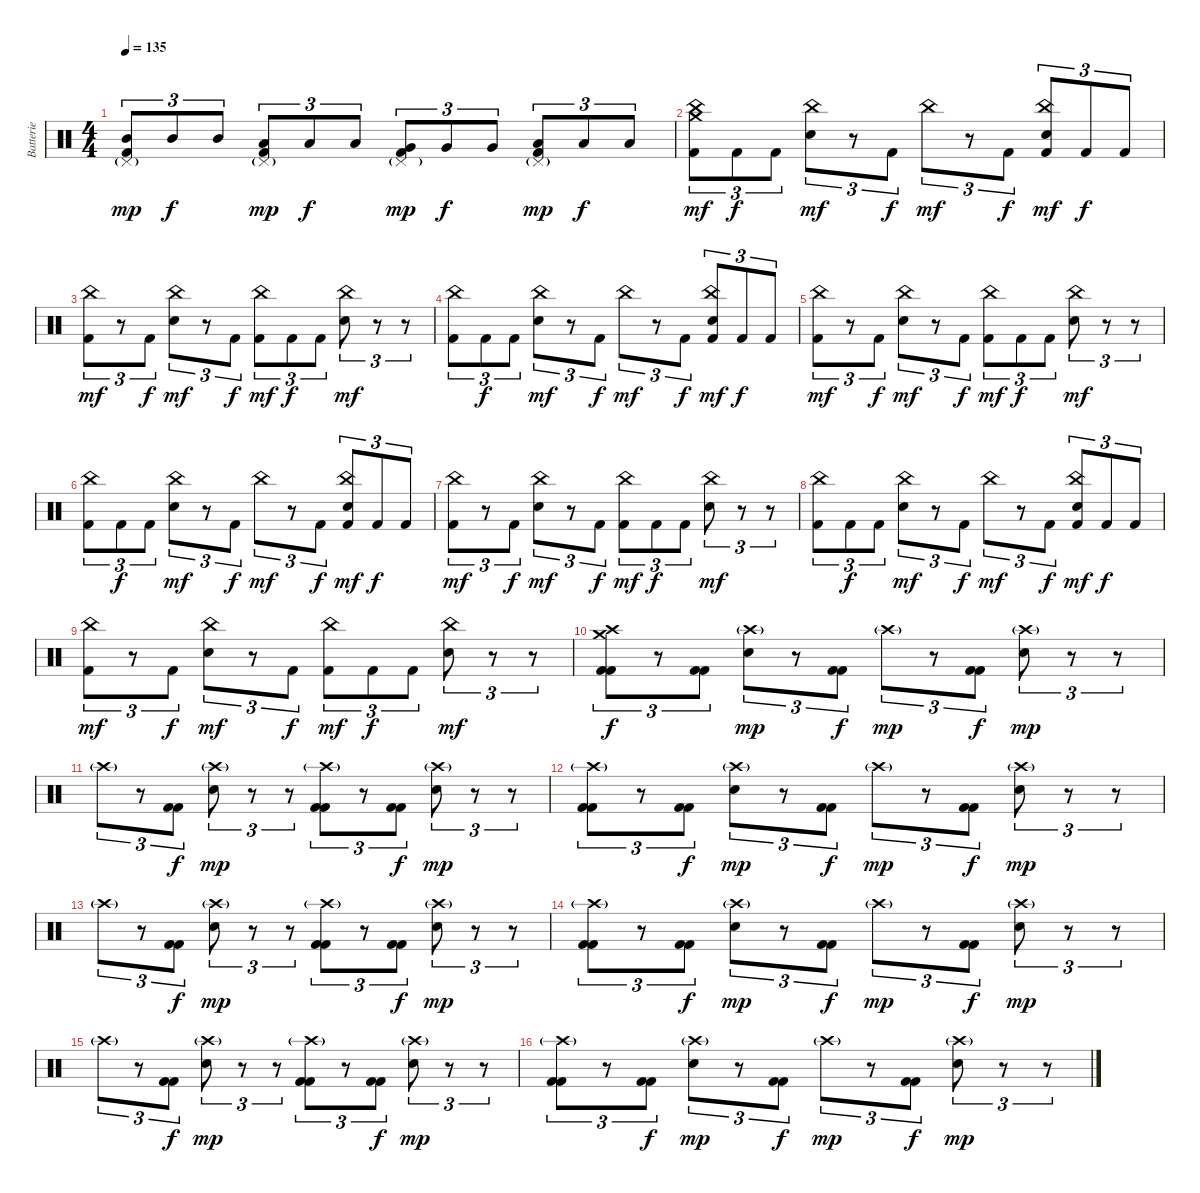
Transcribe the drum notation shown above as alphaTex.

\track ("Batterie" "Batterie") {instrument percussion}
\staff {score}
\articulation defaults
\ts (4 4)
\tempo 135
\clef neutral
\ks c
("Pedal Hi-Hat (hit)"{g} "Mid Tom (hit)" "Kick (hit) 2").8{tu (3 2) dy mp} "Mid Tom (hit)".8{tu (3 2) dy f} "Mid Tom (hit)".8{tu (3 2)} ("Pedal Hi-Hat (hit)"{g} "Low Tom (hit)" "Kick (hit) 2").8{tu (3 2) dy mp} "Low Tom (hit)".8{tu (3 2) dy f} "Low Tom (hit)".8{tu (3 2)} ("Pedal Hi-Hat (hit)"{g} "Very Low Tom (hit)" "Kick (hit) 2").8{tu (3 2) dy mp} "Very Low Tom (hit)".8{tu (3 2) dy f} "Very Low Tom (hit)".8{tu (3 2)} ("Pedal Hi-Hat (hit)"{g} "Low Floor Tom (hit)" "Kick (hit) 2").8{tu (3 2) dy mp} "Low Floor Tom (hit)".8{tu (3 2) dy f} "Low Floor Tom (hit)".8{tu (3 2)} |
("Crash medium (hit)" "China (hit)" "Kick (hit) 2").8{tu (3 2) dy mf} "Kick (hit) 2".8{tu (3 2) dy f} "Kick (hit) 2".8{tu (3 2)} ("China (hit)" "Electric Snare (hit)").8{tu (3 2) dy mf} r.8{tu (3 2)} "Kick (hit) 2".8{tu (3 2) dy f} "China (hit)".8{tu (3 2) dy mf} r.8{tu (3 2)} "Kick (hit) 2".8{tu (3 2) dy f} ("China (hit)" "Electric Snare (hit)" "Kick (hit) 2").8{tu (3 2) dy mf} "Kick (hit) 2".8{tu (3 2) dy f} "Kick (hit) 2".8{tu (3 2)} |
("China (hit)" "Kick (hit) 2").8{tu (3 2) dy mf} r.8{tu (3 2)} "Kick (hit) 2".8{tu (3 2) dy f} ("China (hit)" "Electric Snare (hit)").8{tu (3 2) dy mf} r.8{tu (3 2)} "Kick (hit) 2".8{tu (3 2) dy f} ("China (hit)" "Kick (hit) 2").8{tu (3 2) dy mf} "Kick (hit) 2".8{tu (3 2) dy f} "Kick (hit) 2".8{tu (3 2)} ("China (hit)" "Electric Snare (hit)").8{tu (3 2) dy mf} r.8{tu (3 2)} r.8{tu (3 2)} |
("China (hit)" "Kick (hit) 2").8{tu (3 2)} "Kick (hit) 2".8{tu (3 2) dy f} "Kick (hit) 2".8{tu (3 2)} ("China (hit)" "Electric Snare (hit)").8{tu (3 2) dy mf} r.8{tu (3 2)} "Kick (hit) 2".8{tu (3 2) dy f} "China (hit)".8{tu (3 2) dy mf} r.8{tu (3 2)} "Kick (hit) 2".8{tu (3 2) dy f} ("China (hit)" "Electric Snare (hit)" "Kick (hit) 2").8{tu (3 2) dy mf} "Kick (hit) 2".8{tu (3 2) dy f} "Kick (hit) 2".8{tu (3 2)} |
("China (hit)" "Kick (hit) 2").8{tu (3 2) dy mf} r.8{tu (3 2)} "Kick (hit) 2".8{tu (3 2) dy f} ("China (hit)" "Electric Snare (hit)").8{tu (3 2) dy mf} r.8{tu (3 2)} "Kick (hit) 2".8{tu (3 2) dy f} ("China (hit)" "Kick (hit) 2").8{tu (3 2) dy mf} "Kick (hit) 2".8{tu (3 2) dy f} "Kick (hit) 2".8{tu (3 2)} ("China (hit)" "Electric Snare (hit)").8{tu (3 2) dy mf} r.8{tu (3 2)} r.8{tu (3 2)} |
("China (hit)" "Kick (hit) 2").8{tu (3 2)} "Kick (hit) 2".8{tu (3 2) dy f} "Kick (hit) 2".8{tu (3 2)} ("China (hit)" "Electric Snare (hit)").8{tu (3 2) dy mf} r.8{tu (3 2)} "Kick (hit) 2".8{tu (3 2) dy f} "China (hit)".8{tu (3 2) dy mf} r.8{tu (3 2)} "Kick (hit) 2".8{tu (3 2) dy f} ("China (hit)" "Electric Snare (hit)" "Kick (hit) 2").8{tu (3 2) dy mf} "Kick (hit) 2".8{tu (3 2) dy f} "Kick (hit) 2".8{tu (3 2)} |
("China (hit)" "Kick (hit) 2").8{tu (3 2) dy mf} r.8{tu (3 2)} "Kick (hit) 2".8{tu (3 2) dy f} ("China (hit)" "Electric Snare (hit)").8{tu (3 2) dy mf} r.8{tu (3 2)} "Kick (hit) 2".8{tu (3 2) dy f} ("China (hit)" "Kick (hit) 2").8{tu (3 2) dy mf} "Kick (hit) 2".8{tu (3 2) dy f} "Kick (hit) 2".8{tu (3 2)} ("China (hit)" "Electric Snare (hit)").8{tu (3 2) dy mf} r.8{tu (3 2)} r.8{tu (3 2)} |
("China (hit)" "Kick (hit) 2").8{tu (3 2)} "Kick (hit) 2".8{tu (3 2) dy f} "Kick (hit) 2".8{tu (3 2)} ("China (hit)" "Electric Snare (hit)").8{tu (3 2) dy mf} r.8{tu (3 2)} "Kick (hit) 2".8{tu (3 2) dy f} "China (hit)".8{tu (3 2) dy mf} r.8{tu (3 2)} "Kick (hit) 2".8{tu (3 2) dy f} ("China (hit)" "Electric Snare (hit)" "Kick (hit) 2").8{tu (3 2) dy mf} "Kick (hit) 2".8{tu (3 2) dy f} "Kick (hit) 2".8{tu (3 2)} |
("China (hit)" "Kick (hit) 2").8{tu (3 2) dy mf} r.8{tu (3 2)} "Kick (hit) 2".8{tu (3 2) dy f} ("China (hit)" "Electric Snare (hit)").8{tu (3 2) dy mf} r.8{tu (3 2)} "Kick (hit) 2".8{tu (3 2) dy f} ("China (hit)" "Kick (hit) 2").8{tu (3 2) dy mf} "Kick (hit) 2".8{tu (3 2) dy f} "Kick (hit) 2".8{tu (3 2)} ("China (hit)" "Electric Snare (hit)").8{tu (3 2) dy mf} r.8{tu (3 2)} r.8{tu (3 2)} |
("Crash high (hit)" "Crash medium (hit)" "Kick (hit) 2" "Kick (hit) 2").8{tu (3 2) dy f} r.8{tu (3 2)} ("Kick (hit) 2" "Kick (hit) 2").8{tu (3 2)} ("Crash high (hit)"{g} "Electric Snare (hit)").8{tu (3 2) dy mp} r.8{tu (3 2)} ("Kick (hit) 2" "Kick (hit) 2").8{tu (3 2) dy f} "Crash high (hit)"{g}.8{tu (3 2) dy mp} r.8{tu (3 2)} ("Kick (hit) 2" "Kick (hit) 2").8{tu (3 2) dy f} ("Crash high (hit)"{g} "Electric Snare (hit)").8{tu (3 2) dy mp} r.8{tu (3 2)} r.8{tu (3 2)} |
"Crash high (hit)"{g}.8{tu (3 2)} r.8{tu (3 2)} ("Kick (hit) 2" "Kick (hit) 2").8{tu (3 2) dy f} ("Crash high (hit)"{g} "Electric Snare (hit)").8{tu (3 2) dy mp} r.8{tu (3 2)} r.8{tu (3 2)} ("Crash high (hit)"{g} "Kick (hit) 2" "Kick (hit) 2").8{tu (3 2)} r.8{tu (3 2)} ("Kick (hit) 2" "Kick (hit) 2").8{tu (3 2) dy f} ("Crash high (hit)"{g} "Electric Snare (hit)").8{tu (3 2) dy mp} r.8{tu (3 2)} r.8{tu (3 2)} |
("Crash high (hit)"{g} "Kick (hit) 2" "Kick (hit) 2").8{tu (3 2)} r.8{tu (3 2)} ("Kick (hit) 2" "Kick (hit) 2").8{tu (3 2) dy f} ("Crash high (hit)"{g} "Electric Snare (hit)").8{tu (3 2) dy mp} r.8{tu (3 2)} ("Kick (hit) 2" "Kick (hit) 2").8{tu (3 2) dy f} "Crash high (hit)"{g}.8{tu (3 2) dy mp} r.8{tu (3 2)} ("Kick (hit) 2" "Kick (hit) 2").8{tu (3 2) dy f} ("Crash high (hit)"{g} "Electric Snare (hit)").8{tu (3 2) dy mp} r.8{tu (3 2)} r.8{tu (3 2)} |
"Crash high (hit)"{g}.8{tu (3 2)} r.8{tu (3 2)} ("Kick (hit) 2" "Kick (hit) 2").8{tu (3 2) dy f} ("Crash high (hit)"{g} "Electric Snare (hit)").8{tu (3 2) dy mp} r.8{tu (3 2)} r.8{tu (3 2)} ("Crash high (hit)"{g} "Kick (hit) 2" "Kick (hit) 2").8{tu (3 2)} r.8{tu (3 2)} ("Kick (hit) 2" "Kick (hit) 2").8{tu (3 2) dy f} ("Crash high (hit)"{g} "Electric Snare (hit)").8{tu (3 2) dy mp} r.8{tu (3 2)} r.8{tu (3 2)} |
("Crash high (hit)"{g} "Kick (hit) 2" "Kick (hit) 2").8{tu (3 2)} r.8{tu (3 2)} ("Kick (hit) 2" "Kick (hit) 2").8{tu (3 2) dy f} ("Crash high (hit)"{g} "Electric Snare (hit)").8{tu (3 2) dy mp} r.8{tu (3 2)} ("Kick (hit) 2" "Kick (hit) 2").8{tu (3 2) dy f} "Crash high (hit)"{g}.8{tu (3 2) dy mp} r.8{tu (3 2)} ("Kick (hit) 2" "Kick (hit) 2").8{tu (3 2) dy f} ("Crash high (hit)"{g} "Electric Snare (hit)").8{tu (3 2) dy mp} r.8{tu (3 2)} r.8{tu (3 2)} |
"Crash high (hit)"{g}.8{tu (3 2)} r.8{tu (3 2)} ("Kick (hit) 2" "Kick (hit) 2").8{tu (3 2) dy f} ("Crash high (hit)"{g} "Electric Snare (hit)").8{tu (3 2) dy mp} r.8{tu (3 2)} r.8{tu (3 2)} ("Crash high (hit)"{g} "Kick (hit) 2" "Kick (hit) 2").8{tu (3 2)} r.8{tu (3 2)} ("Kick (hit) 2" "Kick (hit) 2").8{tu (3 2) dy f} ("Crash high (hit)"{g} "Electric Snare (hit)").8{tu (3 2) dy mp} r.8{tu (3 2)} r.8{tu (3 2)} |
("Crash high (hit)"{g} "Kick (hit) 2" "Kick (hit) 2").8{tu (3 2)} r.8{tu (3 2)} ("Kick (hit) 2" "Kick (hit) 2").8{tu (3 2) dy f} ("Crash high (hit)"{g} "Electric Snare (hit)").8{tu (3 2) dy mp} r.8{tu (3 2)} ("Kick (hit) 2" "Kick (hit) 2").8{tu (3 2) dy f} "Crash high (hit)"{g}.8{tu (3 2) dy mp} r.8{tu (3 2)} ("Kick (hit) 2" "Kick (hit) 2").8{tu (3 2) dy f} ("Crash high (hit)"{g} "Electric Snare (hit)").8{tu (3 2) dy mp} r.8{tu (3 2)} r.8{tu (3 2)}
